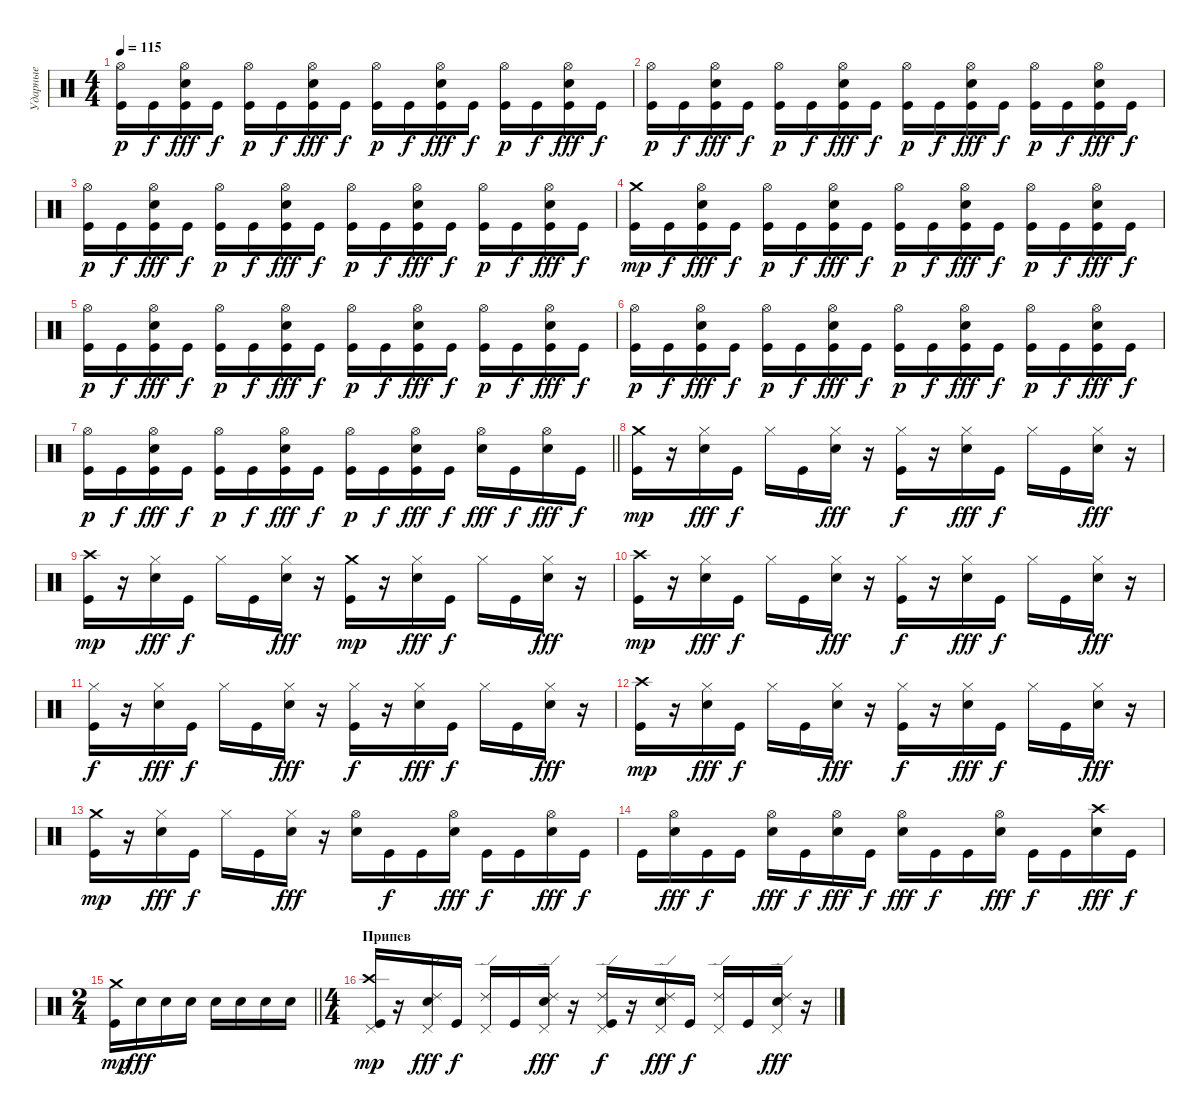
\track ("Ударные" "Ударные") {instrument percussion}
\staff {score}
\articulation defaults
\ts (4 4)
\tempo 115
\clef neutral
\ks c
("Hi-Hat (open)" "Kick (hit)").16{dy p} "Kick (hit)".16{dy f} ("Hi-Hat (open)" "Electric Snare (hit)" "Kick (hit)").16{dy fff} "Kick (hit)".16{dy f} ("Hi-Hat (open)" "Kick (hit)").16{dy p} "Kick (hit)".16{dy f} ("Hi-Hat (open)" "Electric Snare (hit)" "Kick (hit)").16{dy fff} "Kick (hit)".16{dy f} ("Hi-Hat (open)" "Kick (hit)").16{dy p} "Kick (hit)".16{dy f} ("Hi-Hat (open)" "Electric Snare (hit)" "Kick (hit)").16{dy fff} "Kick (hit)".16{dy f} ("Hi-Hat (open)" "Kick (hit)").16{dy p} "Kick (hit)".16{dy f} ("Hi-Hat (open)" "Electric Snare (hit)" "Kick (hit)").16{dy fff} "Kick (hit)".16{dy f} |
("Hi-Hat (open)" "Kick (hit)").16{dy p} "Kick (hit)".16{dy f} ("Hi-Hat (open)" "Electric Snare (hit)" "Kick (hit)").16{dy fff} "Kick (hit)".16{dy f} ("Hi-Hat (open)" "Kick (hit)").16{dy p} "Kick (hit)".16{dy f} ("Hi-Hat (open)" "Electric Snare (hit)" "Kick (hit)").16{dy fff} "Kick (hit)".16{dy f} ("Hi-Hat (open)" "Kick (hit)").16{dy p} "Kick (hit)".16{dy f} ("Hi-Hat (open)" "Electric Snare (hit)" "Kick (hit)").16{dy fff} "Kick (hit)".16{dy f} ("Hi-Hat (open)" "Kick (hit)").16{dy p} "Kick (hit)".16{dy f} ("Hi-Hat (open)" "Electric Snare (hit)" "Kick (hit)").16{dy fff} "Kick (hit)".16{dy f} |
("Hi-Hat (open)" "Kick (hit)").16{dy p} "Kick (hit)".16{dy f} ("Hi-Hat (open)" "Electric Snare (hit)" "Kick (hit)").16{dy fff} "Kick (hit)".16{dy f} ("Hi-Hat (open)" "Kick (hit)").16{dy p} "Kick (hit)".16{dy f} ("Hi-Hat (open)" "Electric Snare (hit)" "Kick (hit)").16{dy fff} "Kick (hit)".16{dy f} ("Hi-Hat (open)" "Kick (hit)").16{dy p} "Kick (hit)".16{dy f} ("Hi-Hat (open)" "Electric Snare (hit)" "Kick (hit)").16{dy fff} "Kick (hit)".16{dy f} ("Hi-Hat (open)" "Kick (hit)").16{dy p} "Kick (hit)".16{dy f} ("Hi-Hat (open)" "Electric Snare (hit)" "Kick (hit)").16{dy fff} "Kick (hit)".16{dy f} |
("Crash medium (hit)" "Kick (hit)").16{dy mp} "Kick (hit)".16{dy f} ("Hi-Hat (open)" "Electric Snare (hit)" "Kick (hit)").16{dy fff} "Kick (hit)".16{dy f} ("Hi-Hat (open)" "Kick (hit)").16{dy p} "Kick (hit)".16{dy f} ("Hi-Hat (open)" "Electric Snare (hit)" "Kick (hit)").16{dy fff} "Kick (hit)".16{dy f} ("Hi-Hat (open)" "Kick (hit)").16{dy p} "Kick (hit)".16{dy f} ("Hi-Hat (open)" "Electric Snare (hit)" "Kick (hit)").16{dy fff} "Kick (hit)".16{dy f} ("Hi-Hat (open)" "Kick (hit)").16{dy p} "Kick (hit)".16{dy f} ("Hi-Hat (open)" "Electric Snare (hit)" "Kick (hit)").16{dy fff} "Kick (hit)".16{dy f} |
("Hi-Hat (open)" "Kick (hit)").16{dy p} "Kick (hit)".16{dy f} ("Hi-Hat (open)" "Electric Snare (hit)" "Kick (hit)").16{dy fff} "Kick (hit)".16{dy f} ("Hi-Hat (open)" "Kick (hit)").16{dy p} "Kick (hit)".16{dy f} ("Hi-Hat (open)" "Electric Snare (hit)" "Kick (hit)").16{dy fff} "Kick (hit)".16{dy f} ("Hi-Hat (open)" "Kick (hit)").16{dy p} "Kick (hit)".16{dy f} ("Hi-Hat (open)" "Electric Snare (hit)" "Kick (hit)").16{dy fff} "Kick (hit)".16{dy f} ("Hi-Hat (open)" "Kick (hit)").16{dy p} "Kick (hit)".16{dy f} ("Hi-Hat (open)" "Electric Snare (hit)" "Kick (hit)").16{dy fff} "Kick (hit)".16{dy f} |
("Hi-Hat (open)" "Kick (hit)").16{dy p} "Kick (hit)".16{dy f} ("Hi-Hat (open)" "Electric Snare (hit)" "Kick (hit)").16{dy fff} "Kick (hit)".16{dy f} ("Hi-Hat (open)" "Kick (hit)").16{dy p} "Kick (hit)".16{dy f} ("Hi-Hat (open)" "Electric Snare (hit)" "Kick (hit)").16{dy fff} "Kick (hit)".16{dy f} ("Hi-Hat (open)" "Kick (hit)").16{dy p} "Kick (hit)".16{dy f} ("Hi-Hat (open)" "Electric Snare (hit)" "Kick (hit)").16{dy fff} "Kick (hit)".16{dy f} ("Hi-Hat (open)" "Kick (hit)").16{dy p} "Kick (hit)".16{dy f} ("Hi-Hat (open)" "Electric Snare (hit)" "Kick (hit)").16{dy fff} "Kick (hit)".16{dy f} |
\barLineRight lightlight
("Hi-Hat (open)" "Kick (hit)").16{dy p} "Kick (hit)".16{dy f} ("Hi-Hat (open)" "Electric Snare (hit)" "Kick (hit)").16{dy fff} "Kick (hit)".16{dy f} ("Hi-Hat (open)" "Kick (hit)").16{dy p} "Kick (hit)".16{dy f} ("Hi-Hat (open)" "Electric Snare (hit)" "Kick (hit)").16{dy fff} "Kick (hit)".16{dy f} ("Hi-Hat (open)" "Kick (hit)").16{dy p} "Kick (hit)".16{dy f} ("Hi-Hat (open)" "Electric Snare (hit)" "Kick (hit)").16{dy fff} "Kick (hit)".16{dy f} ("Hi-Hat (open)" "Electric Snare (hit)").16{dy fff} "Kick (hit)".16{dy f} ("Hi-Hat (open)" "Electric Snare (hit)").16{dy fff} "Kick (hit)".16{dy f} |
\section ("" "")
("Crash medium (hit)" "Kick (hit)").16{dy mp} r.16 ("Hi-Hat (closed)" "Electric Snare (hit)").16{dy fff} "Kick (hit)".16{dy f} "Hi-Hat (closed)".16 "Kick (hit)".16 ("Hi-Hat (closed)" "Electric Snare (hit)").16{dy fff} r.16 ("Hi-Hat (closed)" "Kick (hit)").16{dy f} r.16 ("Hi-Hat (closed)" "Electric Snare (hit)").16{dy fff} "Kick (hit)".16{dy f} "Hi-Hat (closed)".16 "Kick (hit)".16 ("Hi-Hat (closed)" "Electric Snare (hit)").16{dy fff} r.16 |
("Crash high (hit)" "Kick (hit)").16{dy mp} r.16 ("Hi-Hat (closed)" "Electric Snare (hit)").16{dy fff} "Kick (hit)".16{dy f} "Hi-Hat (closed)".16 "Kick (hit)".16 ("Hi-Hat (closed)" "Electric Snare (hit)").16{dy fff} r.16 ("Crash medium (hit)" "Kick (hit)").16{dy mp} r.16 ("Hi-Hat (closed)" "Electric Snare (hit)").16{dy fff} "Kick (hit)".16{dy f} "Hi-Hat (closed)".16 "Kick (hit)".16 ("Hi-Hat (closed)" "Electric Snare (hit)").16{dy fff} r.16 |
("Crash high (hit)" "Kick (hit)").16{dy mp} r.16 ("Hi-Hat (closed)" "Electric Snare (hit)").16{dy fff} "Kick (hit)".16{dy f} "Hi-Hat (closed)".16 "Kick (hit)".16 ("Hi-Hat (closed)" "Electric Snare (hit)").16{dy fff} r.16 ("Hi-Hat (closed)" "Kick (hit)").16{dy f} r.16 ("Hi-Hat (closed)" "Electric Snare (hit)").16{dy fff} "Kick (hit)".16{dy f} "Hi-Hat (closed)".16 "Kick (hit)".16 ("Hi-Hat (closed)" "Electric Snare (hit)").16{dy fff} r.16 |
("Hi-Hat (closed)" "Kick (hit)").16{dy f} r.16 ("Hi-Hat (closed)" "Electric Snare (hit)").16{dy fff} "Kick (hit)".16{dy f} "Hi-Hat (closed)".16 "Kick (hit)".16 ("Hi-Hat (closed)" "Electric Snare (hit)").16{dy fff} r.16 ("Hi-Hat (closed)" "Kick (hit)").16{dy f} r.16 ("Hi-Hat (closed)" "Electric Snare (hit)").16{dy fff} "Kick (hit)".16{dy f} "Hi-Hat (closed)".16 "Kick (hit)".16 ("Hi-Hat (closed)" "Electric Snare (hit)").16{dy fff} r.16 |
("Crash high (hit)" "Kick (hit)").16{dy mp} r.16 ("Hi-Hat (closed)" "Electric Snare (hit)").16{dy fff} "Kick (hit)".16{dy f} "Hi-Hat (closed)".16 "Kick (hit)".16 ("Hi-Hat (closed)" "Electric Snare (hit)").16{dy fff} r.16 ("Hi-Hat (closed)" "Kick (hit)").16{dy f} r.16 ("Hi-Hat (closed)" "Electric Snare (hit)").16{dy fff} "Kick (hit)".16{dy f} "Hi-Hat (closed)".16 "Kick (hit)".16 ("Hi-Hat (closed)" "Electric Snare (hit)").16{dy fff} r.16 |
("Crash medium (hit)" "Kick (hit)").16{dy mp} r.16 ("Hi-Hat (closed)" "Electric Snare (hit)").16{dy fff} "Kick (hit)".16{dy f} "Hi-Hat (closed)".16 "Kick (hit)".16 ("Hi-Hat (closed)" "Electric Snare (hit)").16{dy fff} r.16 ("Hi-Hat (open)" "Electric Snare (hit)").16 "Kick (hit)".16{dy f} "Kick (hit)".16 ("Hi-Hat (open)" "Electric Snare (hit)").16{dy fff} "Kick (hit)".16{dy f} "Kick (hit)".16 ("Hi-Hat (open)" "Electric Snare (hit)").16{dy fff} "Kick (hit)".16{dy f} |
"Kick (hit)".16 ("Hi-Hat (open)" "Electric Snare (hit)").16{dy fff} "Kick (hit)".16{dy f} "Kick (hit)".16 ("Hi-Hat (open)" "Electric Snare (hit)").16{dy fff} "Kick (hit)".16{dy f} ("Hi-Hat (open)" "Electric Snare (hit)").16{dy fff} "Kick (hit)".16{dy f} ("Hi-Hat (open)" "Electric Snare (hit)").16{dy fff} "Kick (hit)".16{dy f} "Kick (hit)".16 ("Hi-Hat (open)" "Electric Snare (hit)").16{dy fff} "Kick (hit)".16{dy f} "Kick (hit)".16 ("Crash high (hit)" "Electric Snare (hit)").16{dy fff} "Kick (hit)".16{dy f} |
\ts (2 4)
\barLineRight lightlight
("Crash medium (hit)" "Kick (hit)").16{dy mp} "Electric Snare (hit)".16{dy fff} "Electric Snare (hit)".16 "Electric Snare (hit)".16 "Electric Snare (hit)".16 "Electric Snare (hit)".16 "Electric Snare (hit)".16 "Electric Snare (hit)".16 |
\ts (4 4)
\section ("" "Припев")
("Crash high (hit)" "Pedal Hi-Hat (hit)" "Kick (hit)").16{dy mp} r.16 ("Ride (edge) 2" "Pedal Hi-Hat (hit)" "Electric Snare (hit)").16{dy fff} "Kick (hit)".16{dy f} ("Ride (edge) 2" "Pedal Hi-Hat (hit)").16 "Kick (hit)".16 ("Ride (edge) 2" "Pedal Hi-Hat (hit)" "Electric Snare (hit)").16{dy fff} r.16 ("Ride (edge) 2" "Pedal Hi-Hat (hit)" "Kick (hit)").16{dy f} r.16 ("Ride (edge) 2" "Pedal Hi-Hat (hit)" "Electric Snare (hit)").16{dy fff} "Kick (hit)".16{dy f} ("Ride (edge) 2" "Pedal Hi-Hat (hit)").16 "Kick (hit)".16 ("Ride (edge) 2" "Pedal Hi-Hat (hit)" "Electric Snare (hit)").16{dy fff} r.16
